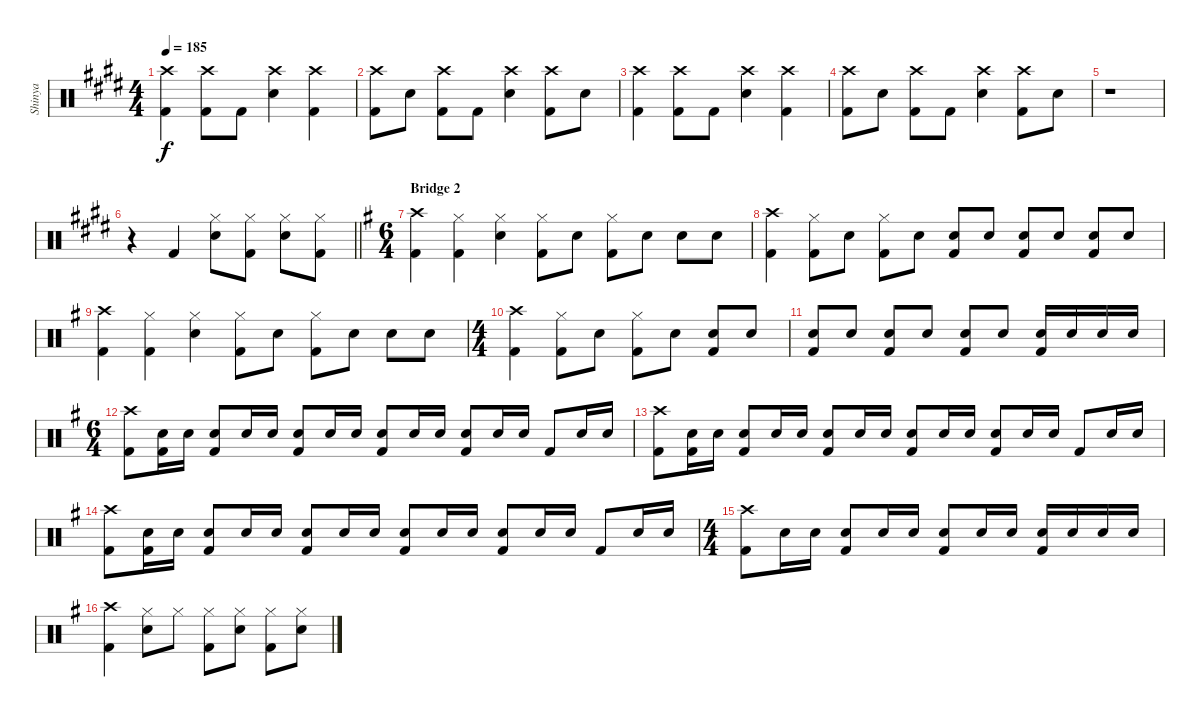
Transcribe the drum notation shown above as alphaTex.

\track ("Shinya" "Shinya") {instrument percussion}
\staff {score}
\articulation defaults
\ts (4 4)
\tempo 185
\clef neutral
\ks e
("Crash high (hit)" "Kick (hit) 2").4{dy f} ("Crash high (hit)" "Kick (hit) 2").8 "Kick (hit) 2".8 ("Crash high (hit)" "Snare (hit) 2").4 ("Crash high (hit)" "Kick (hit) 2").4 |
("Crash high (hit)" "Kick (hit) 2").8 "Snare (hit) 2".8 ("Crash high (hit)" "Kick (hit) 2").8 "Kick (hit) 2".8 ("Crash high (hit)" "Snare (hit) 2").4 ("Crash high (hit)" "Kick (hit) 2").8 "Snare (hit) 2".8 |
("Crash high (hit)" "Kick (hit) 2").4 ("Crash high (hit)" "Kick (hit) 2").8 "Kick (hit) 2".8 ("Crash high (hit)" "Snare (hit) 2").4 ("Crash high (hit)" "Kick (hit) 2").4 |
("Crash high (hit)" "Kick (hit) 2").8 "Snare (hit) 2".8 ("Crash high (hit)" "Kick (hit) 2").8 "Kick (hit) 2".8 ("Crash high (hit)" "Snare (hit) 2").4 ("Crash high (hit)" "Kick (hit) 2").8 "Snare (hit) 2".8 |
r.1 |
\barLineRight lightlight
r.4 "Kick (hit) 2".4 ("Hi-Hat (closed)" "Snare (hit) 2").8 ("Hi-Hat (closed)" "Kick (hit) 2").8 ("Hi-Hat (closed)" "Snare (hit) 2").8 ("Hi-Hat (closed)" "Kick (hit) 2").8 |
\ts (6 4)
\section ("" "Bridge 2")
\ks g
("Crash high (hit)" "Kick (hit) 2").4 ("Hi-Hat (closed)" "Kick (hit) 2").4 ("Hi-Hat (closed)" "Snare (hit) 2").4 ("Hi-Hat (closed)" "Kick (hit) 2").8 "Snare (hit) 2".8 ("Hi-Hat (closed)" "Kick (hit) 2").8 "Snare (hit) 2".8 "Snare (hit) 2".8 "Snare (hit) 2".8 |
("Crash high (hit)" "Kick (hit) 2").4 ("Hi-Hat (closed)" "Kick (hit) 2").8 "Snare (hit) 2".8 ("Hi-Hat (closed)" "Kick (hit) 2").8 "Snare (hit) 2".8 ("Snare (hit) 2" "Kick (hit) 2").8 "Snare (hit) 2".8 ("Snare (hit) 2" "Kick (hit) 2").8 "Snare (hit) 2".8 ("Snare (hit) 2" "Kick (hit) 2").8 "Snare (hit) 2".8 |
("Crash high (hit)" "Kick (hit) 2").4 ("Hi-Hat (closed)" "Kick (hit) 2").4 ("Hi-Hat (closed)" "Snare (hit) 2").4 ("Hi-Hat (closed)" "Kick (hit) 2").8 "Snare (hit) 2".8 ("Hi-Hat (closed)" "Kick (hit) 2").8 "Snare (hit) 2".8 "Snare (hit) 2".8 "Snare (hit) 2".8 |
\ts (4 4)
("Crash high (hit)" "Kick (hit) 2").4 ("Hi-Hat (closed)" "Kick (hit) 2").8 "Snare (hit) 2".8 ("Hi-Hat (closed)" "Kick (hit) 2").8 "Snare (hit) 2".8 ("Snare (hit) 2" "Kick (hit) 2").8 "Snare (hit) 2".8 |
("Snare (hit) 2" "Kick (hit) 2").8 "Snare (hit) 2".8 ("Snare (hit) 2" "Kick (hit) 2").8 "Snare (hit) 2".8 ("Snare (hit) 2" "Kick (hit) 2").8 "Snare (hit) 2".8 ("Snare (hit) 2" "Kick (hit) 2").16 "Snare (hit) 2".16 "Snare (hit) 2".16 "Snare (hit) 2".16 |
\ts (6 4)
("Crash high (hit)" "Kick (hit) 2").8 ("Snare (hit) 2" "Kick (hit) 2").16 "Snare (hit) 2".16 ("Snare (hit) 2" "Kick (hit) 2").8 "Snare (hit) 2".16 "Snare (hit) 2".16 ("Snare (hit) 2" "Kick (hit) 2").8 "Snare (hit) 2".16 "Snare (hit) 2".16 ("Snare (hit) 2" "Kick (hit) 2").8 "Snare (hit) 2".16 "Snare (hit) 2".16 ("Snare (hit) 2" "Kick (hit) 2").8 "Snare (hit) 2".16 "Snare (hit) 2".16 "Kick (hit) 2".8 "Snare (hit) 2".16 "Snare (hit) 2".16 |
("Crash high (hit)" "Kick (hit) 2").8 ("Snare (hit) 2" "Kick (hit) 2").16 "Snare (hit) 2".16 ("Snare (hit) 2" "Kick (hit) 2").8 "Snare (hit) 2".16 "Snare (hit) 2".16 ("Snare (hit) 2" "Kick (hit) 2").8 "Snare (hit) 2".16 "Snare (hit) 2".16 ("Snare (hit) 2" "Kick (hit) 2").8 "Snare (hit) 2".16 "Snare (hit) 2".16 ("Snare (hit) 2" "Kick (hit) 2").8 "Snare (hit) 2".16 "Snare (hit) 2".16 "Kick (hit) 2".8 "Snare (hit) 2".16 "Snare (hit) 2".16 |
("Crash high (hit)" "Kick (hit) 2").8 ("Snare (hit) 2" "Kick (hit) 2").16 "Snare (hit) 2".16 ("Snare (hit) 2" "Kick (hit) 2").8 "Snare (hit) 2".16 "Snare (hit) 2".16 ("Snare (hit) 2" "Kick (hit) 2").8 "Snare (hit) 2".16 "Snare (hit) 2".16 ("Snare (hit) 2" "Kick (hit) 2").8 "Snare (hit) 2".16 "Snare (hit) 2".16 ("Snare (hit) 2" "Kick (hit) 2").8 "Snare (hit) 2".16 "Snare (hit) 2".16 "Kick (hit) 2".8 "Snare (hit) 2".16 "Snare (hit) 2".16 |
\ts (4 4)
("Crash high (hit)" "Kick (hit) 2").8 "Snare (hit) 2".16 "Snare (hit) 2".16 ("Snare (hit) 2" "Kick (hit) 2").8 "Snare (hit) 2".16 "Snare (hit) 2".16 ("Snare (hit) 2" "Kick (hit) 2").8 "Snare (hit) 2".16 "Snare (hit) 2".16 ("Snare (hit) 2" "Kick (hit) 2").16 "Snare (hit) 2".16 "Snare (hit) 2".16 "Snare (hit) 2".16 |
("Crash high (hit)" "Kick (hit) 2").4 ("Hi-Hat (closed)" "Snare (hit) 2").8 "Hi-Hat (closed)".8 ("Hi-Hat (closed)" "Kick (hit) 2").8 ("Hi-Hat (closed)" "Snare (hit) 2").8 ("Hi-Hat (closed)" "Kick (hit) 2").8 ("Hi-Hat (closed)" "Snare (hit) 2").8
